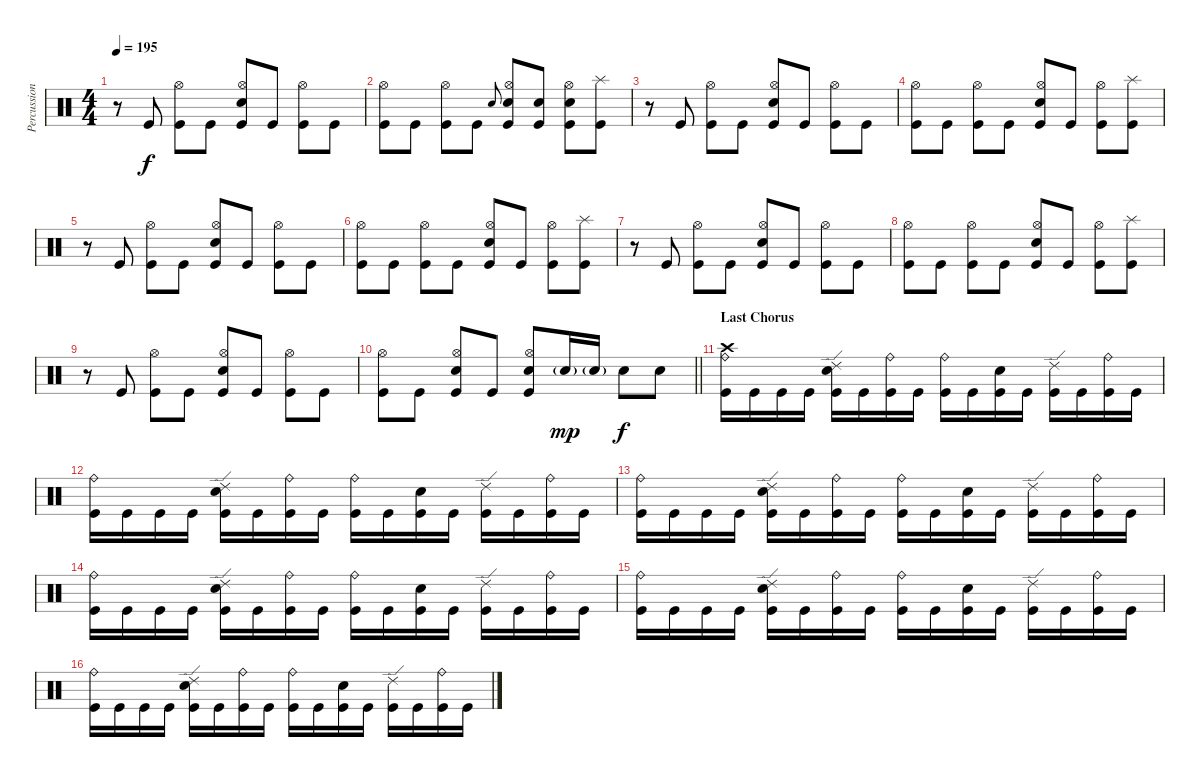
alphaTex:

\track ("Percussion" "Percussion") {instrument percussion}
\staff {score}
\articulation defaults
\ts (4 4)
\tempo 195
\clef neutral
\ks c
r.8{dy f} "Kick (hit)".8 ("Hi-Hat (open)" "Kick (hit)").8 "Kick (hit)".8 ("Hi-Hat (open)" "Electric Snare (hit)" "Kick (hit)").8 "Kick (hit)".8 ("Hi-Hat (open)" "Kick (hit)").8 "Kick (hit)".8 |
("Hi-Hat (open)" "Kick (hit)").8 "Kick (hit)".8 ("Hi-Hat (open)" "Kick (hit)").8 "Kick (hit)".8 "Electric Snare (hit)".8{gr onbeat} ("Hi-Hat (open)" "Electric Snare (hit)" "Kick (hit)").8 ("Electric Snare (hit)" "Kick (hit)").8 ("Hi-Hat (open)" "Electric Snare (hit)" "Kick (hit)").8 ("Splash (hit)" "Kick (hit)").8 |
r.8 "Kick (hit)".8 ("Hi-Hat (open)" "Kick (hit)").8 "Kick (hit)".8 ("Hi-Hat (open)" "Electric Snare (hit)" "Kick (hit)").8 "Kick (hit)".8 ("Hi-Hat (open)" "Kick (hit)").8 "Kick (hit)".8 |
("Hi-Hat (open)" "Kick (hit)").8 "Kick (hit)".8 ("Hi-Hat (open)" "Kick (hit)").8 "Kick (hit)".8 ("Hi-Hat (open)" "Electric Snare (hit)" "Kick (hit)").8 "Kick (hit)".8 ("Hi-Hat (open)" "Kick (hit)").8 ("Splash (hit)" "Kick (hit)").8 |
r.8 "Kick (hit)".8 ("Hi-Hat (open)" "Kick (hit)").8 "Kick (hit)".8 ("Hi-Hat (open)" "Electric Snare (hit)" "Kick (hit)").8 "Kick (hit)".8 ("Hi-Hat (open)" "Kick (hit)").8 "Kick (hit)".8 |
("Hi-Hat (open)" "Kick (hit)").8 "Kick (hit)".8 ("Hi-Hat (open)" "Kick (hit)").8 "Kick (hit)".8 ("Hi-Hat (open)" "Electric Snare (hit)" "Kick (hit)").8 "Kick (hit)".8 ("Hi-Hat (open)" "Kick (hit)").8 ("Splash (hit)" "Kick (hit)").8 |
r.8 "Kick (hit)".8 ("Hi-Hat (open)" "Kick (hit)").8 "Kick (hit)".8 ("Hi-Hat (open)" "Electric Snare (hit)" "Kick (hit)").8 "Kick (hit)".8 ("Hi-Hat (open)" "Kick (hit)").8 "Kick (hit)".8 |
("Hi-Hat (open)" "Kick (hit)").8 "Kick (hit)".8 ("Hi-Hat (open)" "Kick (hit)").8 "Kick (hit)".8 ("Hi-Hat (open)" "Electric Snare (hit)" "Kick (hit)").8 "Kick (hit)".8 ("Hi-Hat (open)" "Kick (hit)").8 ("Splash (hit)" "Kick (hit)").8 |
r.8 "Kick (hit)".8 ("Hi-Hat (open)" "Kick (hit)").8 "Kick (hit)".8 ("Hi-Hat (open)" "Electric Snare (hit)" "Kick (hit)").8 "Kick (hit)".8 ("Hi-Hat (open)" "Kick (hit)").8 "Kick (hit)".8 |
\barLineRight lightlight
("Hi-Hat (open)" "Kick (hit)").8 "Kick (hit)".8 ("Hi-Hat (open)" "Electric Snare (hit)" "Kick (hit)").8 "Kick (hit)".8 ("Hi-Hat (open)" "Electric Snare (hit)" "Kick (hit)").8 "Electric Snare (hit)"{g}.16{dy mp} "Electric Snare (hit)"{g}.16 "Electric Snare (hit)".8{dy f} "Electric Snare (hit)".8 |
\section ("" "Last Chorus")
("Crash high (hit)" "Ride (bell)" "Kick (hit)").16 "Kick (hit)".16 "Kick (hit)".16 "Kick (hit)".16 ("Ride (edge) 2" "Electric Snare (hit)" "Kick (hit)").16 "Kick (hit)".16 ("Ride (bell)" "Kick (hit)").16 "Kick (hit)".16 ("Ride (bell)" "Kick (hit)").16 "Kick (hit)".16 ("Electric Snare (hit)" "Kick (hit)").16 "Kick (hit)".16 ("Ride (edge) 2" "Kick (hit)").16 "Kick (hit)".16 ("Ride (bell)" "Kick (hit)").16 "Kick (hit)".16 |
("Ride (bell)" "Kick (hit)").16 "Kick (hit)".16 "Kick (hit)".16 "Kick (hit)".16 ("Ride (edge) 2" "Electric Snare (hit)" "Kick (hit)").16 "Kick (hit)".16 ("Ride (bell)" "Kick (hit)").16 "Kick (hit)".16 ("Ride (bell)" "Kick (hit)").16 "Kick (hit)".16 ("Electric Snare (hit)" "Kick (hit)").16 "Kick (hit)".16 ("Ride (edge) 2" "Kick (hit)").16 "Kick (hit)".16 ("Ride (bell)" "Kick (hit)").16 "Kick (hit)".16 |
("Ride (bell)" "Kick (hit)").16 "Kick (hit)".16 "Kick (hit)".16 "Kick (hit)".16 ("Ride (edge) 2" "Electric Snare (hit)" "Kick (hit)").16 "Kick (hit)".16 ("Ride (bell)" "Kick (hit)").16 "Kick (hit)".16 ("Ride (bell)" "Kick (hit)").16 "Kick (hit)".16 ("Electric Snare (hit)" "Kick (hit)").16 "Kick (hit)".16 ("Ride (edge) 2" "Kick (hit)").16 "Kick (hit)".16 ("Ride (bell)" "Kick (hit)").16 "Kick (hit)".16 |
("Ride (bell)" "Kick (hit)").16 "Kick (hit)".16 "Kick (hit)".16 "Kick (hit)".16 ("Ride (edge) 2" "Electric Snare (hit)" "Kick (hit)").16 "Kick (hit)".16 ("Ride (bell)" "Kick (hit)").16 "Kick (hit)".16 ("Ride (bell)" "Kick (hit)").16 "Kick (hit)".16 ("Electric Snare (hit)" "Kick (hit)").16 "Kick (hit)".16 ("Ride (edge) 2" "Kick (hit)").16 "Kick (hit)".16 ("Ride (bell)" "Kick (hit)").16 "Kick (hit)".16 |
("Ride (bell)" "Kick (hit)").16 "Kick (hit)".16 "Kick (hit)".16 "Kick (hit)".16 ("Ride (edge) 2" "Electric Snare (hit)" "Kick (hit)").16 "Kick (hit)".16 ("Ride (bell)" "Kick (hit)").16 "Kick (hit)".16 ("Ride (bell)" "Kick (hit)").16 "Kick (hit)".16 ("Electric Snare (hit)" "Kick (hit)").16 "Kick (hit)".16 ("Ride (edge) 2" "Kick (hit)").16 "Kick (hit)".16 ("Ride (bell)" "Kick (hit)").16 "Kick (hit)".16 |
("Ride (bell)" "Kick (hit)").16 "Kick (hit)".16 "Kick (hit)".16 "Kick (hit)".16 ("Ride (edge) 2" "Electric Snare (hit)" "Kick (hit)").16 "Kick (hit)".16 ("Ride (bell)" "Kick (hit)").16 "Kick (hit)".16 ("Ride (bell)" "Kick (hit)").16 "Kick (hit)".16 ("Electric Snare (hit)" "Kick (hit)").16 "Kick (hit)".16 ("Ride (edge) 2" "Kick (hit)").16 "Kick (hit)".16 ("Ride (bell)" "Kick (hit)").16 "Kick (hit)".16
